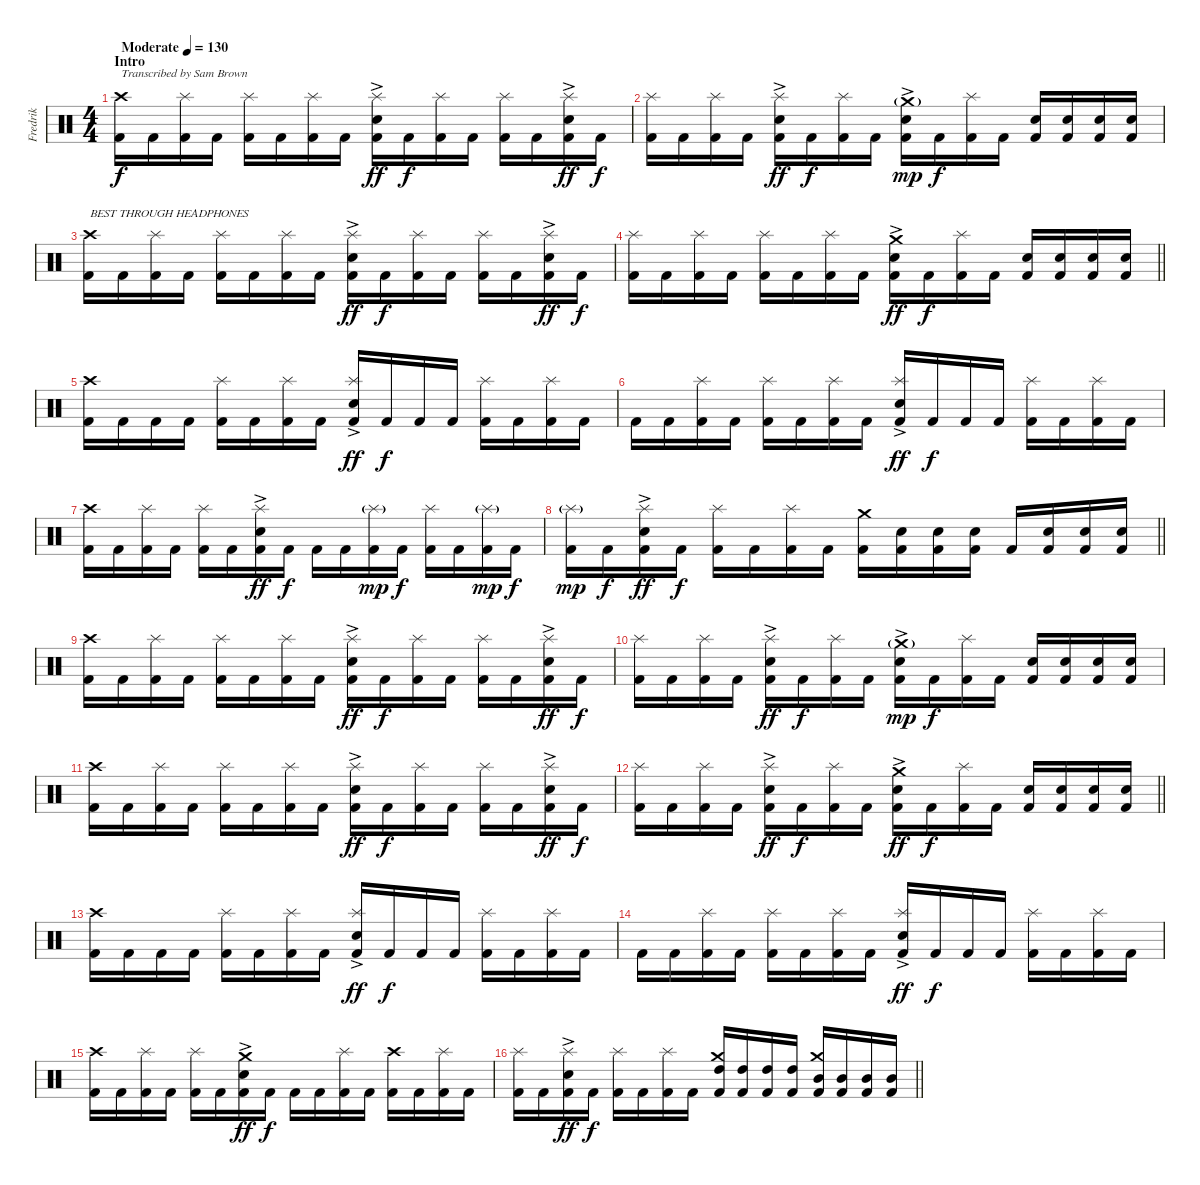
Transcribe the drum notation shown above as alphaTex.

\track ("Fredrik" "Fredrik") {instrument percussion}
\staff {score}
\articulation defaults
\ts (4 4)
\section ("" "Intro")
\tempo (130 "Moderate")
\clef neutral
\ks c
("Kick (hit) 2" "Crash high (hit)").16{txt "Transcribed by Sam Brown" dy f} "Kick (hit) 2".16 ("Kick (hit) 2" "Splash (hit)").16 "Kick (hit) 2".16 ("Kick (hit) 2" "Splash (hit)").16 "Kick (hit) 2".16 ("Kick (hit) 2" "Splash (hit)").16 "Kick (hit) 2".16 ("Kick (hit) 2" "Snare (hit) 2"{ac} "Splash (hit)").16{dy ff} "Kick (hit) 2".16{dy f} ("Kick (hit) 2" "Splash (hit)").16 "Kick (hit) 2".16 ("Kick (hit) 2" "Splash (hit)").16 "Kick (hit) 2".16 ("Kick (hit) 2" "Snare (hit) 2"{ac} "Splash (hit)").16{dy ff} "Kick (hit) 2".16{dy f} |
("Kick (hit) 2" "Splash (hit)").16 "Kick (hit) 2".16 ("Kick (hit) 2" "Splash (hit)").16 "Kick (hit) 2".16 ("Kick (hit) 2" "Snare (hit) 2"{ac} "Splash (hit)").16{dy ff} "Kick (hit) 2".16{dy f} ("Kick (hit) 2" "Splash (hit)").16 "Kick (hit) 2".16 ("Kick (hit) 2" "Snare (hit) 2"{ac} "Crash medium (hit)"{g}).16{dy mp} "Kick (hit) 2".16{dy f} ("Kick (hit) 2" "Splash (hit)").16 "Kick (hit) 2".16 ("Kick (hit) 2" "Snare (hit) 2").16 ("Kick (hit) 2" "Snare (hit) 2").16 ("Kick (hit) 2" "Snare (hit) 2").16 ("Kick (hit) 2" "Snare (hit) 2").16 |
("Kick (hit) 2" "Crash high (hit)").16{txt "BEST THROUGH HEADPHONES"} "Kick (hit) 2".16 ("Kick (hit) 2" "Splash (hit)").16 "Kick (hit) 2".16 ("Kick (hit) 2" "Splash (hit)").16 "Kick (hit) 2".16 ("Kick (hit) 2" "Splash (hit)").16 "Kick (hit) 2".16 ("Kick (hit) 2" "Snare (hit) 2"{ac} "Splash (hit)").16{dy ff} "Kick (hit) 2".16{dy f} ("Kick (hit) 2" "Splash (hit)").16 "Kick (hit) 2".16 ("Kick (hit) 2" "Splash (hit)").16 "Kick (hit) 2".16 ("Kick (hit) 2" "Snare (hit) 2"{ac} "Splash (hit)").16{dy ff} "Kick (hit) 2".16{dy f} |
\barLineRight lightlight
("Kick (hit) 2" "Splash (hit)").16 "Kick (hit) 2".16 ("Kick (hit) 2" "Splash (hit)").16 "Kick (hit) 2".16 ("Kick (hit) 2" "Splash (hit)").16 "Kick (hit) 2".16 ("Kick (hit) 2" "Splash (hit)").16 "Kick (hit) 2".16 ("Kick (hit) 2" "Snare (hit) 2"{ac} "Crash medium (hit)").16{dy ff} "Kick (hit) 2".16{dy f} ("Kick (hit) 2" "Splash (hit)").16 "Kick (hit) 2".16 ("Kick (hit) 2" "Snare (hit) 2").16 ("Kick (hit) 2" "Snare (hit) 2").16 ("Kick (hit) 2" "Snare (hit) 2").16 ("Kick (hit) 2" "Snare (hit) 2").16 |
\section ("" "")
("Kick (hit) 2" "Crash high (hit)").16 "Kick (hit) 2".16 "Kick (hit) 2".16 "Kick (hit) 2".16 ("Kick (hit) 2" "Splash (hit)").16 "Kick (hit) 2".16 ("Kick (hit) 2" "Splash (hit)").16 "Kick (hit) 2".16 ("Kick (hit) 2" "Snare (hit) 2"{ac} "Splash (hit)").16{dy ff} "Kick (hit) 2".16{dy f} "Kick (hit) 2".16 "Kick (hit) 2".16 ("Kick (hit) 2" "Splash (hit)").16 "Kick (hit) 2".16 ("Kick (hit) 2" "Splash (hit)").16 "Kick (hit) 2".16 |
"Kick (hit) 2".16 "Kick (hit) 2".16 ("Kick (hit) 2" "Splash (hit)").16 "Kick (hit) 2".16 ("Kick (hit) 2" "Splash (hit)").16 "Kick (hit) 2".16 ("Kick (hit) 2" "Splash (hit)").16 "Kick (hit) 2".16 ("Kick (hit) 2" "Snare (hit) 2"{ac} "Splash (hit)").16{dy ff} "Kick (hit) 2".16{dy f} "Kick (hit) 2".16 "Kick (hit) 2".16 ("Kick (hit) 2" "Splash (hit)").16 "Kick (hit) 2".16 ("Kick (hit) 2" "Splash (hit)").16 "Kick (hit) 2".16 |
("Kick (hit) 2" "Crash high (hit)").16 "Kick (hit) 2".16 ("Kick (hit) 2" "Splash (hit)").16 "Kick (hit) 2".16 ("Kick (hit) 2" "Splash (hit)").16 "Kick (hit) 2".16 ("Kick (hit) 2" "Snare (hit) 2"{ac} "Splash (hit)").16{dy ff} "Kick (hit) 2".16{dy f} "Kick (hit) 2".16 "Kick (hit) 2".16 ("Kick (hit) 2" "Splash (hit)"{g}).16{dy mp} "Kick (hit) 2".16{dy f} ("Kick (hit) 2" "Splash (hit)").16 "Kick (hit) 2".16 ("Kick (hit) 2" "Splash (hit)"{g}).16{dy mp} "Kick (hit) 2".16{dy f} |
\barLineRight lightlight
("Kick (hit) 2" "Splash (hit)"{g}).16{dy mp} "Kick (hit) 2".16{dy f} ("Kick (hit) 2" "Snare (hit) 2"{ac} "Splash (hit)").16{dy ff} "Kick (hit) 2".16{dy f} ("Kick (hit) 2" "Splash (hit)").16 "Kick (hit) 2".16 ("Kick (hit) 2" "Splash (hit)").16 "Kick (hit) 2".16 ("Kick (hit) 2" "Crash medium (hit)").16 ("Kick (hit) 2" "Snare (hit) 2").16 ("Kick (hit) 2" "Snare (hit) 2").16 ("Kick (hit) 2" "Snare (hit) 2").16 "Kick (hit) 2".16 ("Kick (hit) 2" "Snare (hit) 2").16 ("Kick (hit) 2" "Snare (hit) 2").16 ("Kick (hit) 2" "Snare (hit) 2").16 |
\section ("" "")
("Kick (hit) 2" "Crash high (hit)").16 "Kick (hit) 2".16 ("Kick (hit) 2" "Splash (hit)").16 "Kick (hit) 2".16 ("Kick (hit) 2" "Splash (hit)").16 "Kick (hit) 2".16 ("Kick (hit) 2" "Splash (hit)").16 "Kick (hit) 2".16 ("Kick (hit) 2" "Snare (hit) 2"{ac} "Splash (hit)").16{dy ff} "Kick (hit) 2".16{dy f} ("Kick (hit) 2" "Splash (hit)").16 "Kick (hit) 2".16 ("Kick (hit) 2" "Splash (hit)").16 "Kick (hit) 2".16 ("Kick (hit) 2" "Snare (hit) 2"{ac} "Splash (hit)").16{dy ff} "Kick (hit) 2".16{dy f} |
("Kick (hit) 2" "Splash (hit)").16 "Kick (hit) 2".16 ("Kick (hit) 2" "Splash (hit)").16 "Kick (hit) 2".16 ("Kick (hit) 2" "Snare (hit) 2"{ac} "Splash (hit)").16{dy ff} "Kick (hit) 2".16{dy f} ("Kick (hit) 2" "Splash (hit)").16 "Kick (hit) 2".16 ("Kick (hit) 2" "Snare (hit) 2"{ac} "Crash medium (hit)"{g}).16{dy mp} "Kick (hit) 2".16{dy f} ("Kick (hit) 2" "Splash (hit)").16 "Kick (hit) 2".16 ("Kick (hit) 2" "Snare (hit) 2").16 ("Kick (hit) 2" "Snare (hit) 2").16 ("Kick (hit) 2" "Snare (hit) 2").16 ("Kick (hit) 2" "Snare (hit) 2").16 |
("Kick (hit) 2" "Crash high (hit)").16 "Kick (hit) 2".16 ("Kick (hit) 2" "Splash (hit)").16 "Kick (hit) 2".16 ("Kick (hit) 2" "Splash (hit)").16 "Kick (hit) 2".16 ("Kick (hit) 2" "Splash (hit)").16 "Kick (hit) 2".16 ("Kick (hit) 2" "Snare (hit) 2"{ac} "Splash (hit)").16{dy ff} "Kick (hit) 2".16{dy f} ("Kick (hit) 2" "Splash (hit)").16 "Kick (hit) 2".16 ("Kick (hit) 2" "Splash (hit)").16 "Kick (hit) 2".16 ("Kick (hit) 2" "Snare (hit) 2"{ac} "Splash (hit)").16{dy ff} "Kick (hit) 2".16{dy f} |
\barLineRight lightlight
("Kick (hit) 2" "Splash (hit)").16 "Kick (hit) 2".16 ("Kick (hit) 2" "Splash (hit)").16 "Kick (hit) 2".16 ("Kick (hit) 2" "Snare (hit) 2"{ac} "Splash (hit)").16{dy ff} "Kick (hit) 2".16{dy f} ("Kick (hit) 2" "Splash (hit)").16 "Kick (hit) 2".16 ("Kick (hit) 2" "Snare (hit) 2"{ac} "Crash medium (hit)").16{dy ff} "Kick (hit) 2".16{dy f} ("Kick (hit) 2" "Splash (hit)").16 "Kick (hit) 2".16 ("Kick (hit) 2" "Snare (hit) 2").16 ("Kick (hit) 2" "Snare (hit) 2").16 ("Kick (hit) 2" "Snare (hit) 2").16 ("Kick (hit) 2" "Snare (hit) 2").16 |
\section ("" "")
("Kick (hit) 2" "Crash high (hit)").16 "Kick (hit) 2".16 "Kick (hit) 2".16 "Kick (hit) 2".16 ("Kick (hit) 2" "Splash (hit)").16 "Kick (hit) 2".16 ("Kick (hit) 2" "Splash (hit)").16 "Kick (hit) 2".16 ("Kick (hit) 2" "Snare (hit) 2"{ac} "Splash (hit)").16{dy ff} "Kick (hit) 2".16{dy f} "Kick (hit) 2".16 "Kick (hit) 2".16 ("Kick (hit) 2" "Splash (hit)").16 "Kick (hit) 2".16 ("Kick (hit) 2" "Splash (hit)").16 "Kick (hit) 2".16 |
"Kick (hit) 2".16 "Kick (hit) 2".16 ("Kick (hit) 2" "Splash (hit)").16 "Kick (hit) 2".16 ("Kick (hit) 2" "Splash (hit)").16 "Kick (hit) 2".16 ("Kick (hit) 2" "Splash (hit)").16 "Kick (hit) 2".16 ("Kick (hit) 2" "Snare (hit) 2"{ac} "Splash (hit)").16{dy ff} "Kick (hit) 2".16{dy f} "Kick (hit) 2".16 "Kick (hit) 2".16 ("Kick (hit) 2" "Splash (hit)").16 "Kick (hit) 2".16 ("Kick (hit) 2" "Splash (hit)").16 "Kick (hit) 2".16 |
("Kick (hit) 2" "Crash high (hit)").16 "Kick (hit) 2".16 ("Kick (hit) 2" "Splash (hit)").16 "Kick (hit) 2".16 ("Kick (hit) 2" "Splash (hit)").16 "Kick (hit) 2".16 ("Kick (hit) 2" "Snare (hit) 2"{ac} "Crash medium (hit)").16{dy ff} "Kick (hit) 2".16{dy f} "Kick (hit) 2".16 "Kick (hit) 2".16 ("Kick (hit) 2" "Splash (hit)").16 "Kick (hit) 2".16 ("Kick (hit) 2" "Crash high (hit)").16 "Kick (hit) 2".16 ("Kick (hit) 2" "Splash (hit)").16 "Kick (hit) 2".16 |
\barLineRight lightlight
("Kick (hit) 2" "Splash (hit)").16 "Kick (hit) 2".16 ("Kick (hit) 2" "Snare (hit) 2"{ac} "Splash (hit)").16{dy ff} "Kick (hit) 2".16{dy f} ("Kick (hit) 2" "Splash (hit)").16 "Kick (hit) 2".16 ("Kick (hit) 2" "Splash (hit)").16 "Kick (hit) 2".16 ("Kick (hit) 2" "High Tom (hit)" "Crash medium (hit)").16 ("Kick (hit) 2" "High Tom (hit)").16 ("Kick (hit) 2" "High Tom (hit)").16 ("Kick (hit) 2" "High Tom (hit)").16 ("Kick (hit) 2" "Mid Tom (hit)" "Crash medium (hit)").16 ("Kick (hit) 2" "Mid Tom (hit)").16 ("Kick (hit) 2" "Mid Tom (hit)").16 ("Kick (hit) 2" "Mid Tom (hit)").16
